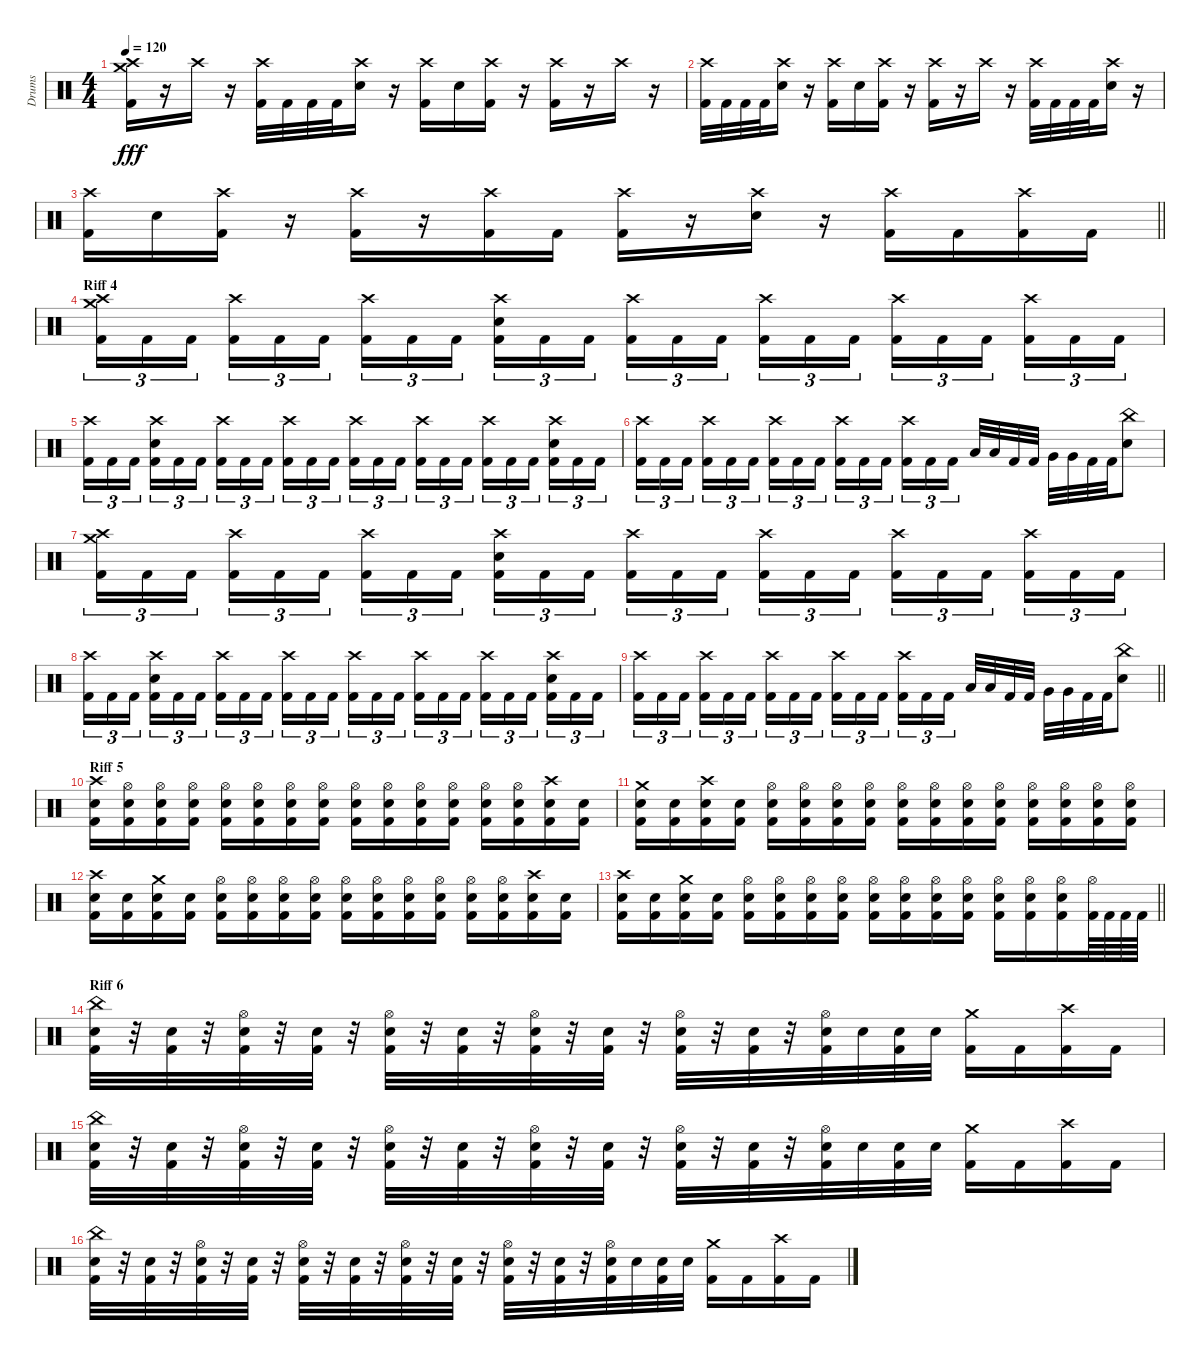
\track ("Drums" "Drums") {instrument percussion}
\staff {score}
\articulation defaults
\ts (4 4)
\tempo 120
\clef neutral
\ks c
("Crash high (hit)" "Crash medium (hit)" "Kick (hit) 2").16{dy fff} r.16 "Crash high (hit)".16 r.16 ("Crash high (hit)" "Kick (hit) 2").32 "Kick (hit) 2".32 "Kick (hit) 2".32 "Kick (hit) 2".32 ("Crash high (hit)" "Electric Snare (hit)").16 r.16 ("Crash high (hit)" "Kick (hit) 2").16 "Electric Snare (hit)".16 ("Crash high (hit)" "Kick (hit) 2").16 r.16 ("Crash high (hit)" "Kick (hit) 2").16 r.16 "Crash high (hit)".16 r.16 |
("Crash high (hit)" "Kick (hit) 2").32 "Kick (hit) 2".32 "Kick (hit) 2".32 "Kick (hit) 2".32 ("Crash high (hit)" "Electric Snare (hit)").16 r.16 ("Crash high (hit)" "Kick (hit) 2").16 "Electric Snare (hit)".16 ("Crash high (hit)" "Kick (hit) 2").16 r.16 ("Crash high (hit)" "Kick (hit) 2").16 r.16 "Crash high (hit)".16 r.16 ("Crash high (hit)" "Kick (hit) 2").32 "Kick (hit) 2".32 "Kick (hit) 2".32 "Kick (hit) 2".32 ("Crash high (hit)" "Electric Snare (hit)").16 r.16 |
\barLineRight lightlight
("Crash high (hit)" "Kick (hit) 2").16 "Electric Snare (hit)".16 ("Crash high (hit)" "Kick (hit) 2").16 r.16 ("Crash high (hit)" "Kick (hit) 2").16 r.16 ("Crash high (hit)" "Kick (hit) 2").16 "Kick (hit) 2".16 ("Crash high (hit)" "Kick (hit) 2").16 r.16 ("Crash high (hit)" "Electric Snare (hit)").16 r.16 ("Crash high (hit)" "Kick (hit) 2").16 "Kick (hit) 2".16 ("Crash high (hit)" "Kick (hit) 2").16 "Kick (hit) 2".16 |
\section ("" "Riff 4")
("Crash high (hit)" "Crash medium (hit)" "Kick (hit) 2").16{tu (3 2)} "Kick (hit) 2".16{tu (3 2)} "Kick (hit) 2".16{tu (3 2)} ("Crash high (hit)" "Kick (hit) 2").16{tu (3 2)} "Kick (hit) 2".16{tu (3 2)} "Kick (hit) 2".16{tu (3 2)} ("Crash high (hit)" "Kick (hit) 2").16{tu (3 2)} "Kick (hit) 2".16{tu (3 2)} "Kick (hit) 2".16{tu (3 2)} ("Crash high (hit)" "Electric Snare (hit)" "Kick (hit) 2").16{tu (3 2)} "Kick (hit) 2".16{tu (3 2)} "Kick (hit) 2".16{tu (3 2)} ("Crash high (hit)" "Kick (hit) 2").16{tu (3 2)} "Kick (hit) 2".16{tu (3 2)} "Kick (hit) 2".16{tu (3 2)} ("Crash high (hit)" "Kick (hit) 2").16{tu (3 2)} "Kick (hit) 2".16{tu (3 2)} "Kick (hit) 2".16{tu (3 2)} ("Crash high (hit)" "Kick (hit) 2").16{tu (3 2)} "Kick (hit) 2".16{tu (3 2)} "Kick (hit) 2".16{tu (3 2)} ("Crash high (hit)" "Kick (hit) 2").16{tu (3 2)} "Kick (hit) 2".16{tu (3 2)} "Kick (hit) 2".16{tu (3 2)} |
("Crash high (hit)" "Kick (hit) 2").16{tu (3 2)} "Kick (hit) 2".16{tu (3 2)} "Kick (hit) 2".16{tu (3 2)} ("Crash high (hit)" "Electric Snare (hit)" "Kick (hit) 2").16{tu (3 2)} "Kick (hit) 2".16{tu (3 2)} "Kick (hit) 2".16{tu (3 2)} ("Crash high (hit)" "Kick (hit) 2").16{tu (3 2)} "Kick (hit) 2".16{tu (3 2)} "Kick (hit) 2".16{tu (3 2)} ("Crash high (hit)" "Kick (hit) 2").16{tu (3 2)} "Kick (hit) 2".16{tu (3 2)} "Kick (hit) 2".16{tu (3 2)} ("Crash high (hit)" "Kick (hit) 2").16{tu (3 2)} "Kick (hit) 2".16{tu (3 2)} "Kick (hit) 2".16{tu (3 2)} ("Crash high (hit)" "Kick (hit) 2").16{tu (3 2)} "Kick (hit) 2".16{tu (3 2)} "Kick (hit) 2".16{tu (3 2)} ("Crash high (hit)" "Kick (hit) 2").16{tu (3 2)} "Kick (hit) 2".16{tu (3 2)} "Kick (hit) 2".16{tu (3 2)} ("Crash high (hit)" "Electric Snare (hit)" "Kick (hit) 2").16{tu (3 2)} "Kick (hit) 2".16{tu (3 2)} "Kick (hit) 2".16{tu (3 2)} |
("Crash high (hit)" "Kick (hit) 2").16{tu (3 2)} "Kick (hit) 2".16{tu (3 2)} "Kick (hit) 2".16{tu (3 2)} ("Crash high (hit)" "Kick (hit) 2").16{tu (3 2)} "Kick (hit) 2".16{tu (3 2)} "Kick (hit) 2".16{tu (3 2)} ("Crash high (hit)" "Kick (hit) 2").16{tu (3 2)} "Kick (hit) 2".16{tu (3 2)} "Kick (hit) 2".16{tu (3 2)} ("Crash high (hit)" "Kick (hit) 2").16{tu (3 2)} "Kick (hit) 2".16{tu (3 2)} "Kick (hit) 2".16{tu (3 2)} ("Crash high (hit)" "Kick (hit) 2").16{tu (3 2)} "Kick (hit) 2".16{tu (3 2)} "Kick (hit) 2".16{tu (3 2)} "Low Tom (hit)".32 "Low Tom (hit)".32 "Kick (hit) 2".32 "Kick (hit) 2".32 "Very Low Tom (hit)".32 "Very Low Tom (hit)".32 "Kick (hit) 2".32 "Kick (hit) 2".32 ("China (hit)" "Electric Snare (hit)").8 |
("Crash high (hit)" "Crash medium (hit)" "Kick (hit) 2").16{tu (3 2)} "Kick (hit) 2".16{tu (3 2)} "Kick (hit) 2".16{tu (3 2)} ("Crash high (hit)" "Kick (hit) 2").16{tu (3 2)} "Kick (hit) 2".16{tu (3 2)} "Kick (hit) 2".16{tu (3 2)} ("Crash high (hit)" "Kick (hit) 2").16{tu (3 2)} "Kick (hit) 2".16{tu (3 2)} "Kick (hit) 2".16{tu (3 2)} ("Crash high (hit)" "Electric Snare (hit)" "Kick (hit) 2").16{tu (3 2)} "Kick (hit) 2".16{tu (3 2)} "Kick (hit) 2".16{tu (3 2)} ("Crash high (hit)" "Kick (hit) 2").16{tu (3 2)} "Kick (hit) 2".16{tu (3 2)} "Kick (hit) 2".16{tu (3 2)} ("Crash high (hit)" "Kick (hit) 2").16{tu (3 2)} "Kick (hit) 2".16{tu (3 2)} "Kick (hit) 2".16{tu (3 2)} ("Crash high (hit)" "Kick (hit) 2").16{tu (3 2)} "Kick (hit) 2".16{tu (3 2)} "Kick (hit) 2".16{tu (3 2)} ("Crash high (hit)" "Kick (hit) 2").16{tu (3 2)} "Kick (hit) 2".16{tu (3 2)} "Kick (hit) 2".16{tu (3 2)} |
("Crash high (hit)" "Kick (hit) 2").16{tu (3 2)} "Kick (hit) 2".16{tu (3 2)} "Kick (hit) 2".16{tu (3 2)} ("Crash high (hit)" "Electric Snare (hit)" "Kick (hit) 2").16{tu (3 2)} "Kick (hit) 2".16{tu (3 2)} "Kick (hit) 2".16{tu (3 2)} ("Crash high (hit)" "Kick (hit) 2").16{tu (3 2)} "Kick (hit) 2".16{tu (3 2)} "Kick (hit) 2".16{tu (3 2)} ("Crash high (hit)" "Kick (hit) 2").16{tu (3 2)} "Kick (hit) 2".16{tu (3 2)} "Kick (hit) 2".16{tu (3 2)} ("Crash high (hit)" "Kick (hit) 2").16{tu (3 2)} "Kick (hit) 2".16{tu (3 2)} "Kick (hit) 2".16{tu (3 2)} ("Crash high (hit)" "Kick (hit) 2").16{tu (3 2)} "Kick (hit) 2".16{tu (3 2)} "Kick (hit) 2".16{tu (3 2)} ("Crash high (hit)" "Kick (hit) 2").16{tu (3 2)} "Kick (hit) 2".16{tu (3 2)} "Kick (hit) 2".16{tu (3 2)} ("Crash high (hit)" "Electric Snare (hit)" "Kick (hit) 2").16{tu (3 2)} "Kick (hit) 2".16{tu (3 2)} "Kick (hit) 2".16{tu (3 2)} |
\barLineRight lightlight
("Crash high (hit)" "Kick (hit) 2").16{tu (3 2)} "Kick (hit) 2".16{tu (3 2)} "Kick (hit) 2".16{tu (3 2)} ("Crash high (hit)" "Kick (hit) 2").16{tu (3 2)} "Kick (hit) 2".16{tu (3 2)} "Kick (hit) 2".16{tu (3 2)} ("Crash high (hit)" "Kick (hit) 2").16{tu (3 2)} "Kick (hit) 2".16{tu (3 2)} "Kick (hit) 2".16{tu (3 2)} ("Crash high (hit)" "Kick (hit) 2").16{tu (3 2)} "Kick (hit) 2".16{tu (3 2)} "Kick (hit) 2".16{tu (3 2)} ("Crash high (hit)" "Kick (hit) 2").16{tu (3 2)} "Kick (hit) 2".16{tu (3 2)} "Kick (hit) 2".16{tu (3 2)} "Low Tom (hit)".32 "Low Tom (hit)".32 "Kick (hit) 2".32 "Kick (hit) 2".32 "Very Low Tom (hit)".32 "Very Low Tom (hit)".32 "Kick (hit) 2".32 "Kick (hit) 2".32 ("China (hit)" "Electric Snare (hit)").8 |
\section ("" "Riff 5")
("Crash high (hit)" "Electric Snare (hit)" "Kick (hit) 2").16 ("Hi-Hat (open)" "Electric Snare (hit)" "Kick (hit) 2").16 ("Hi-Hat (open)" "Electric Snare (hit)" "Kick (hit) 2").16 ("Hi-Hat (open)" "Electric Snare (hit)" "Kick (hit) 2").16 ("Hi-Hat (open)" "Electric Snare (hit)" "Kick (hit) 2").16 ("Hi-Hat (open)" "Electric Snare (hit)" "Kick (hit) 2").16 ("Hi-Hat (open)" "Electric Snare (hit)" "Kick (hit) 2").16 ("Hi-Hat (open)" "Electric Snare (hit)" "Kick (hit) 2").16 ("Hi-Hat (open)" "Electric Snare (hit)" "Kick (hit) 2").16 ("Hi-Hat (open)" "Electric Snare (hit)" "Kick (hit) 2").16 ("Hi-Hat (open)" "Electric Snare (hit)" "Kick (hit) 2").16 ("Hi-Hat (open)" "Electric Snare (hit)" "Kick (hit) 2").16 ("Hi-Hat (open)" "Electric Snare (hit)" "Kick (hit) 2").16 ("Hi-Hat (open)" "Electric Snare (hit)" "Kick (hit) 2").16 ("Crash high (hit)" "Electric Snare (hit)" "Kick (hit) 2").16 ("Electric Snare (hit)" "Kick (hit) 2").16 |
("Crash medium (hit)" "Electric Snare (hit)" "Kick (hit) 2").16 ("Electric Snare (hit)" "Kick (hit) 2").16 ("Crash high (hit)" "Electric Snare (hit)" "Kick (hit) 2").16 ("Electric Snare (hit)" "Kick (hit) 2").16 ("Hi-Hat (open)" "Electric Snare (hit)" "Kick (hit) 2").16 ("Hi-Hat (open)" "Electric Snare (hit)" "Kick (hit) 2").16 ("Hi-Hat (open)" "Electric Snare (hit)" "Kick (hit) 2").16 ("Hi-Hat (open)" "Electric Snare (hit)" "Kick (hit) 2").16 ("Hi-Hat (open)" "Electric Snare (hit)" "Kick (hit) 2").16 ("Hi-Hat (open)" "Electric Snare (hit)" "Kick (hit) 2").16 ("Hi-Hat (open)" "Electric Snare (hit)" "Kick (hit) 2").16 ("Hi-Hat (open)" "Electric Snare (hit)" "Kick (hit) 2").16 ("Hi-Hat (open)" "Electric Snare (hit)" "Kick (hit) 2").16 ("Hi-Hat (open)" "Electric Snare (hit)" "Kick (hit) 2").16 ("Hi-Hat (open)" "Electric Snare (hit)" "Kick (hit) 2").16 ("Hi-Hat (open)" "Electric Snare (hit)" "Kick (hit) 2").16 |
("Crash high (hit)" "Electric Snare (hit)" "Kick (hit) 2").16 ("Electric Snare (hit)" "Kick (hit) 2").16 ("Crash medium (hit)" "Electric Snare (hit)" "Kick (hit) 2").16 ("Electric Snare (hit)" "Kick (hit) 2").16 ("Hi-Hat (open)" "Electric Snare (hit)" "Kick (hit) 2").16 ("Hi-Hat (open)" "Electric Snare (hit)" "Kick (hit) 2").16 ("Hi-Hat (open)" "Electric Snare (hit)" "Kick (hit) 2").16 ("Hi-Hat (open)" "Electric Snare (hit)" "Kick (hit) 2").16 ("Hi-Hat (open)" "Electric Snare (hit)" "Kick (hit) 2").16 ("Hi-Hat (open)" "Electric Snare (hit)" "Kick (hit) 2").16 ("Hi-Hat (open)" "Electric Snare (hit)" "Kick (hit) 2").16 ("Hi-Hat (open)" "Electric Snare (hit)" "Kick (hit) 2").16 ("Hi-Hat (open)" "Electric Snare (hit)" "Kick (hit) 2").16 ("Hi-Hat (open)" "Electric Snare (hit)" "Kick (hit) 2").16 ("Crash high (hit)" "Electric Snare (hit)" "Kick (hit) 2").16 ("Electric Snare (hit)" "Kick (hit) 2").16 |
\barLineRight lightlight
("Crash high (hit)" "Electric Snare (hit)" "Kick (hit) 2").16 ("Electric Snare (hit)" "Kick (hit) 2").16 ("Crash medium (hit)" "Electric Snare (hit)" "Kick (hit) 2").16 ("Electric Snare (hit)" "Kick (hit) 2").16 ("Hi-Hat (open)" "Electric Snare (hit)" "Kick (hit) 2").16 ("Hi-Hat (open)" "Electric Snare (hit)" "Kick (hit) 2").16 ("Hi-Hat (open)" "Electric Snare (hit)" "Kick (hit) 2").16 ("Hi-Hat (open)" "Electric Snare (hit)" "Kick (hit) 2").16 ("Hi-Hat (open)" "Electric Snare (hit)" "Kick (hit) 2").16 ("Hi-Hat (open)" "Electric Snare (hit)" "Kick (hit) 2").16 ("Hi-Hat (open)" "Electric Snare (hit)" "Kick (hit) 2").16 ("Hi-Hat (open)" "Electric Snare (hit)" "Kick (hit) 2").16 ("Hi-Hat (open)" "Electric Snare (hit)" "Kick (hit) 2").16 ("Hi-Hat (open)" "Electric Snare (hit)" "Kick (hit) 2").16 ("Hi-Hat (open)" "Electric Snare (hit)" "Kick (hit) 2").16 ("Hi-Hat (open)" "Kick (hit) 2").64 "Kick (hit) 2".64 "Kick (hit) 2".64 "Kick (hit) 2".64 |
\section ("" "Riff 6")
("China (hit)" "Electric Snare (hit)" "Kick (hit) 2").32 r.32 ("Electric Snare (hit)" "Kick (hit) 2").32 r.32 ("Hi-Hat (open)" "Electric Snare (hit)" "Kick (hit) 2").32 r.32 ("Electric Snare (hit)" "Kick (hit) 2").32 r.32 ("Hi-Hat (open)" "Electric Snare (hit)" "Kick (hit) 2").32 r.32 ("Electric Snare (hit)" "Kick (hit) 2").32 r.32 ("Hi-Hat (open)" "Electric Snare (hit)" "Kick (hit) 2").32 r.32 ("Electric Snare (hit)" "Kick (hit) 2").32 r.32 ("Hi-Hat (open)" "Electric Snare (hit)" "Kick (hit) 2").32 r.32 ("Electric Snare (hit)" "Kick (hit) 2").32 r.32 ("Hi-Hat (open)" "Electric Snare (hit)" "Kick (hit) 2").32 "Electric Snare (hit)".32 ("Electric Snare (hit)" "Kick (hit) 2").32 "Electric Snare (hit)".32 ("Crash medium (hit)" "Kick (hit) 2").16 "Kick (hit) 2".16 ("Crash high (hit)" "Kick (hit) 2").16 "Kick (hit) 2".16 |
("China (hit)" "Electric Snare (hit)" "Kick (hit) 2").32 r.32 ("Electric Snare (hit)" "Kick (hit) 2").32 r.32 ("Hi-Hat (open)" "Electric Snare (hit)" "Kick (hit) 2").32 r.32 ("Electric Snare (hit)" "Kick (hit) 2").32 r.32 ("Hi-Hat (open)" "Electric Snare (hit)" "Kick (hit) 2").32 r.32 ("Electric Snare (hit)" "Kick (hit) 2").32 r.32 ("Hi-Hat (open)" "Electric Snare (hit)" "Kick (hit) 2").32 r.32 ("Electric Snare (hit)" "Kick (hit) 2").32 r.32 ("Hi-Hat (open)" "Electric Snare (hit)" "Kick (hit) 2").32 r.32 ("Electric Snare (hit)" "Kick (hit) 2").32 r.32 ("Hi-Hat (open)" "Electric Snare (hit)" "Kick (hit) 2").32 "Electric Snare (hit)".32 ("Electric Snare (hit)" "Kick (hit) 2").32 "Electric Snare (hit)".32 ("Crash medium (hit)" "Kick (hit) 2").16 "Kick (hit) 2".16 ("Crash high (hit)" "Kick (hit) 2").16 "Kick (hit) 2".16 |
("China (hit)" "Electric Snare (hit)" "Kick (hit) 2").32 r.32 ("Electric Snare (hit)" "Kick (hit) 2").32 r.32 ("Hi-Hat (open)" "Electric Snare (hit)" "Kick (hit) 2").32 r.32 ("Electric Snare (hit)" "Kick (hit) 2").32 r.32 ("Hi-Hat (open)" "Electric Snare (hit)" "Kick (hit) 2").32 r.32 ("Electric Snare (hit)" "Kick (hit) 2").32 r.32 ("Hi-Hat (open)" "Electric Snare (hit)" "Kick (hit) 2").32 r.32 ("Electric Snare (hit)" "Kick (hit) 2").32 r.32 ("Hi-Hat (open)" "Electric Snare (hit)" "Kick (hit) 2").32 r.32 ("Electric Snare (hit)" "Kick (hit) 2").32 r.32 ("Hi-Hat (open)" "Electric Snare (hit)" "Kick (hit) 2").32 "Electric Snare (hit)".32 ("Electric Snare (hit)" "Kick (hit) 2").32 "Electric Snare (hit)".32 ("Crash medium (hit)" "Kick (hit) 2").16 "Kick (hit) 2".16 ("Crash high (hit)" "Kick (hit) 2").16 "Kick (hit) 2".16
